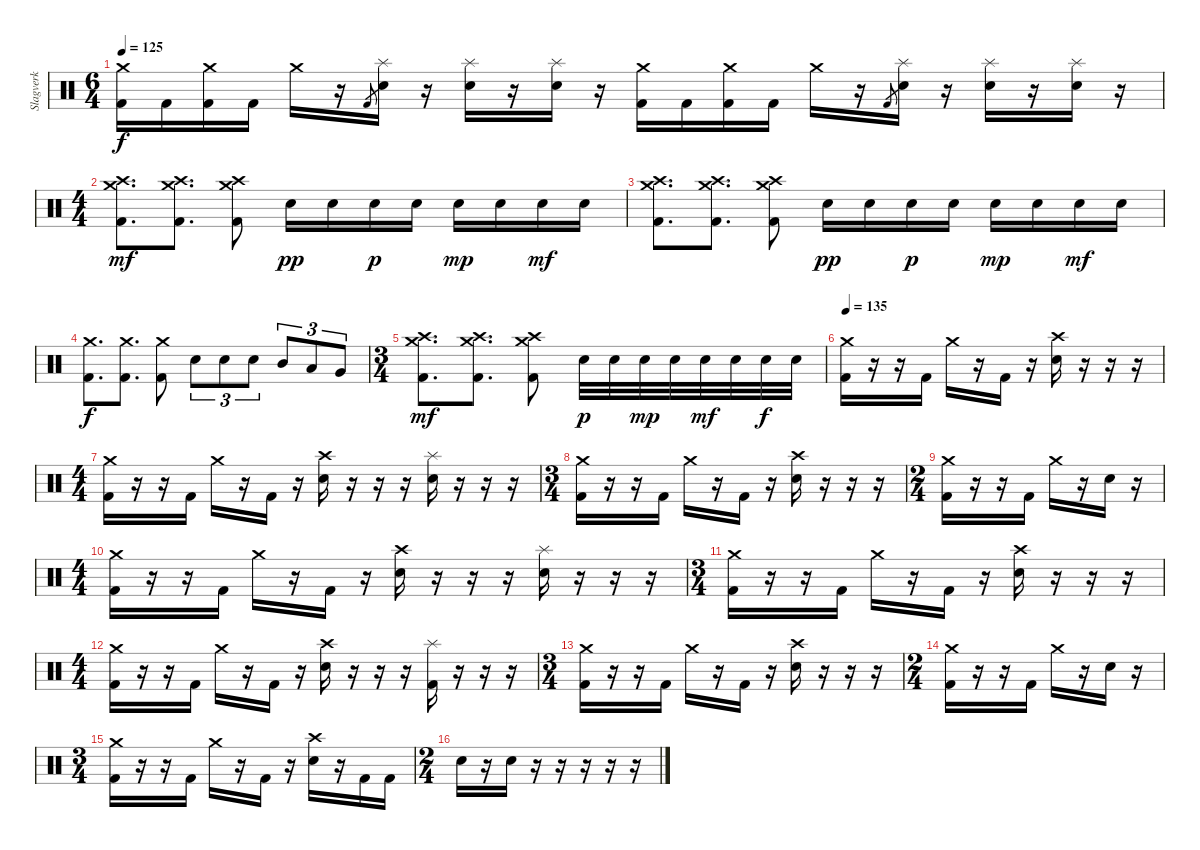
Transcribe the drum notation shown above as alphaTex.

\track ("Slagverk" "Slagverk") {instrument percussion}
\staff {score}
\articulation defaults
\ts (6 4)
\tempo 125
\clef neutral
\ks c
("Crash medium (hit)" "Kick (hit) 2").16{dy f} "Kick (hit) 2".16 ("Crash medium (hit)" "Kick (hit) 2").16 "Kick (hit) 2".16 "Crash medium (hit)".16 r.16 "Kick (hit) 2".8{gr} ("Splash (hit)" "Electric Snare (hit)").16 r.16 ("Splash (hit)" "Electric Snare (hit)").16 r.16 ("Splash (hit)" "Electric Snare (hit)").16 r.16 ("Crash medium (hit)" "Kick (hit) 2").16 "Kick (hit) 2".16 ("Crash medium (hit)" "Kick (hit) 2").16 "Kick (hit) 2".16 "Crash medium (hit)".16 r.16 "Kick (hit) 2".8{gr} ("Splash (hit)" "Electric Snare (hit)").16 r.16 ("Splash (hit)" "Electric Snare (hit)").16 r.16 ("Splash (hit)" "Electric Snare (hit)").16 r.16 |
\ts (4 4)
("Crash high (hit)" "Crash medium (hit)" "Kick (hit) 2").8{d dy mf} ("Crash high (hit)" "Crash medium (hit)" "Kick (hit) 2").8{d} ("Crash high (hit)" "Crash medium (hit)" "Kick (hit) 2").8 "Electric Snare (hit)".16{dy pp} "Electric Snare (hit)".16 "Electric Snare (hit)".16{dy p} "Electric Snare (hit)".16 "Electric Snare (hit)".16{dy mp} "Electric Snare (hit)".16 "Electric Snare (hit)".16{dy mf} "Electric Snare (hit)".16 |
("Crash high (hit)" "Crash medium (hit)" "Kick (hit) 2").8{d} ("Crash high (hit)" "Crash medium (hit)" "Kick (hit) 2").8{d} ("Crash high (hit)" "Crash medium (hit)" "Kick (hit) 2").8 "Electric Snare (hit)".16{dy pp} "Electric Snare (hit)".16 "Electric Snare (hit)".16{dy p} "Electric Snare (hit)".16 "Electric Snare (hit)".16{dy mp} "Electric Snare (hit)".16 "Electric Snare (hit)".16{dy mf} "Electric Snare (hit)".16 |
("Crash medium (hit)" "Kick (hit) 2").8{d dy f} ("Crash medium (hit)" "Kick (hit) 2").8{d} ("Crash medium (hit)" "Kick (hit) 2").8 "Electric Snare (hit)".8{tu (3 2)} "Electric Snare (hit)".8{tu (3 2)} "Electric Snare (hit)".8{tu (3 2)} "Mid Tom (hit)".8{tu (3 2)} "Low Tom (hit)".8{tu (3 2)} "Very Low Tom (hit)".8{tu (3 2)} |
\ts (3 4)
("Crash high (hit)" "Crash medium (hit)" "Kick (hit) 2").8{d dy mf} ("Crash high (hit)" "Crash medium (hit)" "Kick (hit) 2").8{d} ("Crash high (hit)" "Crash medium (hit)" "Kick (hit) 2").8 "Electric Snare (hit)".32{dy p} "Electric Snare (hit)".32 "Electric Snare (hit)".32{dy mp} "Electric Snare (hit)".32 "Electric Snare (hit)".32{dy mf} "Electric Snare (hit)".32 "Electric Snare (hit)".32{dy f} "Electric Snare (hit)".32 |
\tempo 135
("Crash medium (hit)" "Kick (hit) 2").16 r.16 r.16 "Kick (hit) 2".16 "Crash medium (hit)".16 r.16 "Kick (hit) 2".16 r.16 ("Crash high (hit)" "Electric Snare (hit)").16 r.16 r.16 r.16 |
\ts (4 4)
("Crash medium (hit)" "Kick (hit) 2").16 r.16 r.16 "Kick (hit) 2".16 "Crash medium (hit)".16 r.16 "Kick (hit) 2".16 r.16 ("Crash high (hit)" "Electric Snare (hit)").16 r.16 r.16 r.16 ("Splash (hit)" "Electric Snare (hit)").16 r.16 r.16 r.16 |
\ts (3 4)
("Crash medium (hit)" "Kick (hit) 2").16 r.16 r.16 "Kick (hit) 2".16 "Crash medium (hit)".16 r.16 "Kick (hit) 2".16 r.16 ("Crash high (hit)" "Electric Snare (hit)").16 r.16 r.16 r.16 |
\ts (2 4)
("Crash medium (hit)" "Kick (hit) 2").16 r.16 r.16 "Kick (hit) 2".16 "Crash medium (hit)".16 r.16 "Electric Snare (hit)".16 r.16 |
\ts (4 4)
("Crash medium (hit)" "Kick (hit) 2").16 r.16 r.16 "Kick (hit) 2".16 "Crash medium (hit)".16 r.16 "Kick (hit) 2".16 r.16 ("Crash high (hit)" "Electric Snare (hit)").16 r.16 r.16 r.16 ("Splash (hit)" "Electric Snare (hit)").16 r.16 r.16 r.16 |
\ts (3 4)
("Crash medium (hit)" "Kick (hit) 2").16 r.16 r.16 "Kick (hit) 2".16 "Crash medium (hit)".16 r.16 "Kick (hit) 2".16 r.16 ("Crash high (hit)" "Electric Snare (hit)").16 r.16 r.16 r.16 |
\ts (4 4)
("Crash medium (hit)" "Kick (hit) 2").16 r.16 r.16 "Kick (hit) 2".16 "Crash medium (hit)".16 r.16 "Kick (hit) 2".16 r.16 ("Crash high (hit)" "Electric Snare (hit)").16 r.16 r.16 r.16 ("Splash (hit)" "Kick (hit) 2").16 r.16 r.16 r.16 |
\ts (3 4)
("Crash medium (hit)" "Kick (hit) 2").16 r.16 r.16 "Kick (hit) 2".16 "Crash medium (hit)".16 r.16 "Kick (hit) 2".16 r.16 ("Crash high (hit)" "Electric Snare (hit)").16 r.16 r.16 r.16 |
\ts (2 4)
("Crash medium (hit)" "Kick (hit) 2").16 r.16 r.16 "Kick (hit) 2".16 "Crash medium (hit)".16 r.16 "Electric Snare (hit)".16 r.16 |
\ts (3 4)
("Crash medium (hit)" "Kick (hit) 2").16 r.16 r.16 "Kick (hit) 2".16 "Crash medium (hit)".16 r.16 "Kick (hit) 2".16 r.16 ("Crash high (hit)" "Electric Snare (hit)").16 r.16 "Kick (hit) 2".16 "Kick (hit) 2".16 |
\ts (2 4)
"Electric Snare (hit)".16 r.16 "Electric Snare (hit)".16 r.16 r.16 r.16 r.16 r.16
